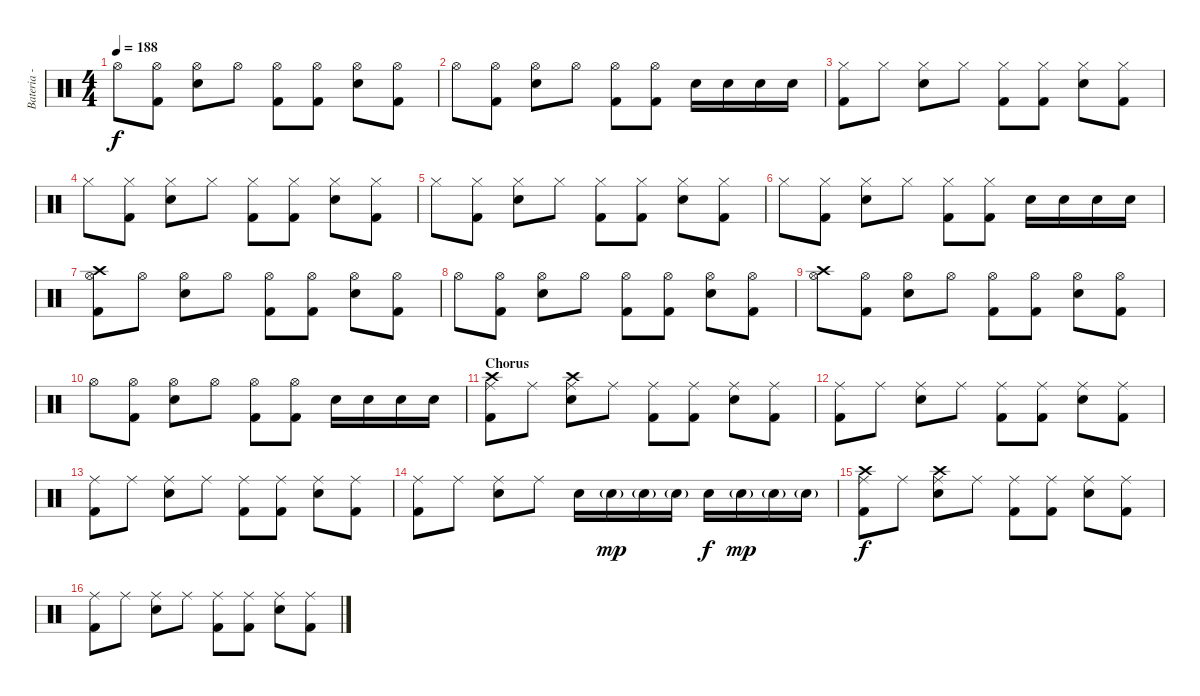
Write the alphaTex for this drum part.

\track ("Bateria - Larzon" "Bateria - ") {instrument percussion}
\staff {score}
\articulation defaults
\ts (4 4)
\tempo 188
\clef neutral
\ks c "Hi-Hat (open)".8{dy f}
("Kick (hit) 2" "Hi-Hat (open)").8 ("Snare (hit) 2" "Hi-Hat (open)").8 "Hi-Hat (open)".8 ("Kick (hit) 2" "Hi-Hat (open)").8 ("Kick (hit) 2" "Hi-Hat (open)").8 ("Snare (hit) 2" "Hi-Hat (open)").8 ("Kick (hit) 2" "Hi-Hat (open)").8 |
"Hi-Hat (open)".8 ("Kick (hit) 2" "Hi-Hat (open)").8 ("Snare (hit) 2" "Hi-Hat (open)").8 "Hi-Hat (open)".8 ("Kick (hit) 2" "Hi-Hat (open)").8 ("Kick (hit) 2" "Hi-Hat (open)").8 "Snare (hit) 2".16 "Snare (hit) 2".16 "Snare (hit) 2".16 "Snare (hit) 2".16 |
("Kick (hit) 2" "Hi-Hat (closed)").8 "Hi-Hat (closed)".8 ("Snare (hit) 2" "Hi-Hat (closed)").8 "Hi-Hat (closed)".8 ("Kick (hit) 2" "Hi-Hat (closed)").8 ("Kick (hit) 2" "Hi-Hat (closed)").8 ("Snare (hit) 2" "Hi-Hat (closed)").8 ("Kick (hit) 2" "Hi-Hat (closed)").8 |
"Hi-Hat (closed)".8 ("Kick (hit) 2" "Hi-Hat (closed)").8 ("Snare (hit) 2" "Hi-Hat (closed)").8 "Hi-Hat (closed)".8 ("Kick (hit) 2" "Hi-Hat (closed)").8 ("Kick (hit) 2" "Hi-Hat (closed)").8 ("Snare (hit) 2" "Hi-Hat (closed)").8 ("Kick (hit) 2" "Hi-Hat (closed)").8 |
"Hi-Hat (closed)".8 ("Kick (hit) 2" "Hi-Hat (closed)").8 ("Snare (hit) 2" "Hi-Hat (closed)").8 "Hi-Hat (closed)".8 ("Kick (hit) 2" "Hi-Hat (closed)").8 ("Kick (hit) 2" "Hi-Hat (closed)").8 ("Snare (hit) 2" "Hi-Hat (closed)").8 ("Kick (hit) 2" "Hi-Hat (closed)").8 |
"Hi-Hat (closed)".8 ("Kick (hit) 2" "Hi-Hat (closed)").8 ("Snare (hit) 2" "Hi-Hat (closed)").8 "Hi-Hat (closed)".8 ("Kick (hit) 2" "Hi-Hat (closed)").8 ("Kick (hit) 2" "Hi-Hat (closed)").8 "Snare (hit) 2".16 "Snare (hit) 2".16 "Snare (hit) 2".16 "Snare (hit) 2".16 |
("Kick (hit) 2" "Crash high (hit)" "Hi-Hat (open)").8 "Hi-Hat (open)".8 ("Snare (hit) 2" "Hi-Hat (open)").8 "Hi-Hat (open)".8 ("Kick (hit) 2" "Hi-Hat (open)").8 ("Kick (hit) 2" "Hi-Hat (open)").8 ("Snare (hit) 2" "Hi-Hat (open)").8 ("Kick (hit) 2" "Hi-Hat (open)").8 |
"Hi-Hat (open)".8 ("Kick (hit) 2" "Hi-Hat (open)").8 ("Snare (hit) 2" "Hi-Hat (open)").8 "Hi-Hat (open)".8 ("Kick (hit) 2" "Hi-Hat (open)").8 ("Kick (hit) 2" "Hi-Hat (open)").8 ("Snare (hit) 2" "Hi-Hat (open)").8 ("Kick (hit) 2" "Hi-Hat (open)").8 |
("Crash high (hit)" "Hi-Hat (open)").8 ("Kick (hit) 2" "Hi-Hat (open)").8 ("Snare (hit) 2" "Hi-Hat (open)").8 "Hi-Hat (open)".8 ("Kick (hit) 2" "Hi-Hat (open)").8 ("Kick (hit) 2" "Hi-Hat (open)").8 ("Snare (hit) 2" "Hi-Hat (open)").8 ("Kick (hit) 2" "Hi-Hat (open)").8 |
"Hi-Hat (open)".8 ("Kick (hit) 2" "Hi-Hat (open)").8 ("Snare (hit) 2" "Hi-Hat (open)").8 "Hi-Hat (open)".8 ("Kick (hit) 2" "Hi-Hat (open)").8 ("Kick (hit) 2" "Hi-Hat (open)").8 "Snare (hit) 2".16 "Snare (hit) 2".16 "Snare (hit) 2".16 "Snare (hit) 2".16 |
\section ("" "Chorus")
("Kick (hit) 2" "Crash high (hit)" "Ride (middle)").8 "Ride (middle)".8 ("Snare (hit) 2" "Crash high (hit)" "Ride (middle)").8 "Ride (middle)".8 ("Kick (hit) 2" "Ride (middle)").8 ("Kick (hit) 2" "Ride (middle)").8 ("Snare (hit) 2" "Ride (middle)").8 ("Kick (hit) 2" "Ride (middle)").8 |
("Kick (hit) 2" "Ride (middle)").8 "Ride (middle)".8 ("Snare (hit) 2" "Ride (middle)").8 "Ride (middle)".8 ("Kick (hit) 2" "Ride (middle)").8 ("Kick (hit) 2" "Ride (middle)").8 ("Snare (hit) 2" "Ride (middle)").8 ("Kick (hit) 2" "Ride (middle)").8 |
("Kick (hit) 2" "Ride (middle)").8 "Ride (middle)".8 ("Snare (hit) 2" "Ride (middle)").8 "Ride (middle)".8 ("Kick (hit) 2" "Ride (middle)").8 ("Kick (hit) 2" "Ride (middle)").8 ("Snare (hit) 2" "Ride (middle)").8 ("Kick (hit) 2" "Ride (middle)").8 |
("Kick (hit) 2" "Ride (middle)").8 "Ride (middle)".8 ("Snare (hit) 2" "Ride (middle)").8 "Ride (middle)".8 "Snare (hit) 2".16 "Snare (hit) 2"{g}.16{dy mp} "Snare (hit) 2"{g}.16 "Snare (hit) 2"{g}.16 "Snare (hit) 2".16{dy f} "Snare (hit) 2"{g}.16{dy mp} "Snare (hit) 2"{g}.16 "Snare (hit) 2"{g}.16 |
("Kick (hit) 2" "Crash high (hit)" "Ride (middle)").8{dy f} "Ride (middle)".8 ("Snare (hit) 2" "Crash high (hit)" "Ride (middle)").8 "Ride (middle)".8 ("Kick (hit) 2" "Ride (middle)").8 ("Kick (hit) 2" "Ride (middle)").8 ("Snare (hit) 2" "Ride (middle)").8 ("Kick (hit) 2" "Ride (middle)").8 |
("Kick (hit) 2" "Ride (middle)").8 "Ride (middle)".8 ("Snare (hit) 2" "Ride (middle)").8 "Ride (middle)".8 ("Kick (hit) 2" "Ride (middle)").8 ("Kick (hit) 2" "Ride (middle)").8 ("Snare (hit) 2" "Ride (middle)").8 ("Kick (hit) 2" "Ride (middle)").8
